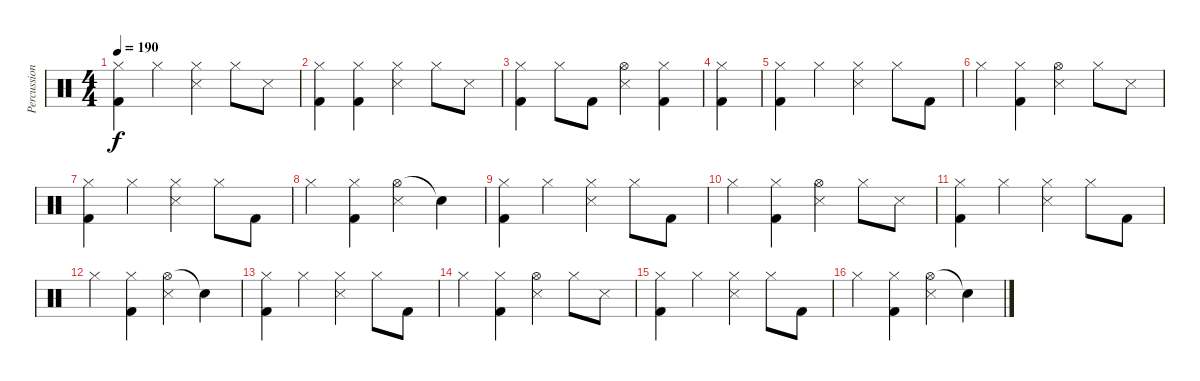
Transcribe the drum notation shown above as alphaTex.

\track ("Percussion" "Percussion") {instrument percussion}
\staff {score}
\articulation defaults
\ts (4 4)
\tempo 190
\clef neutral
\ks c
("Hi-Hat (closed)" "Kick (hit) 2").4{dy f} "Hi-Hat (closed)".4 ("Hi-Hat (closed)" "Snare (side stick) 3").4 "Hi-Hat (closed)".8 "Snare (side stick) 3".8 |
("Hi-Hat (closed)" "Kick (hit) 2").4 ("Hi-Hat (closed)" "Kick (hit) 2").4 ("Hi-Hat (closed)" "Snare (side stick) 3").4 "Hi-Hat (closed)".8 "Snare (side stick) 3".8 |
("Hi-Hat (closed)" "Kick (hit) 2").4 "Hi-Hat (closed)".8 "Kick (hit) 2".8 ("Hi-Hat (open)" "Snare (side stick) 3").4 ("Hi-Hat (closed)" "Kick (hit) 2").4 |
("Hi-Hat (closed)" "Kick (hit) 2").4 |
("Hi-Hat (closed)" "Kick (hit) 2").4 "Hi-Hat (closed)".4 ("Hi-Hat (closed)" "Snare (side stick) 3").4 "Hi-Hat (closed)".8 "Kick (hit) 2".8 |
"Hi-Hat (closed)".4 ("Hi-Hat (closed)" "Kick (hit) 2").4 ("Hi-Hat (open)" "Snare (side stick) 3").4 "Hi-Hat (closed)".8 "Snare (side stick) 3".8 |
("Hi-Hat (closed)" "Kick (hit) 2").4 "Hi-Hat (closed)".4 ("Hi-Hat (closed)" "Snare (side stick) 3").4 "Hi-Hat (closed)".8 "Kick (hit) 2".8 |
"Hi-Hat (closed)".4 ("Hi-Hat (closed)" "Kick (hit) 2").4 ("Hi-Hat (open)" "Snare (side stick) 3").4 "Snare (hit)"{t}.4 |
("Hi-Hat (closed)" "Kick (hit) 2").4 "Hi-Hat (closed)".4 ("Hi-Hat (closed)" "Snare (side stick) 3").4 "Hi-Hat (closed)".8 "Kick (hit) 2".8 |
"Hi-Hat (closed)".4 ("Hi-Hat (closed)" "Kick (hit) 2").4 ("Hi-Hat (open)" "Snare (side stick) 3").4 "Hi-Hat (closed)".8 "Snare (side stick) 3".8 |
("Hi-Hat (closed)" "Kick (hit) 2").4 "Hi-Hat (closed)".4 ("Hi-Hat (closed)" "Snare (side stick) 3").4 "Hi-Hat (closed)".8 "Kick (hit) 2".8 |
"Hi-Hat (closed)".4 ("Hi-Hat (closed)" "Kick (hit) 2").4 ("Hi-Hat (open)" "Snare (side stick) 3").4 "Snare (hit)"{t}.4 |
("Hi-Hat (closed)" "Kick (hit) 2").4 "Hi-Hat (closed)".4 ("Hi-Hat (closed)" "Snare (side stick) 3").4 "Hi-Hat (closed)".8 "Kick (hit) 2".8 |
"Hi-Hat (closed)".4 ("Hi-Hat (closed)" "Kick (hit) 2").4 ("Hi-Hat (open)" "Snare (side stick) 3").4 "Hi-Hat (closed)".8 "Snare (side stick) 3".8 |
("Hi-Hat (closed)" "Kick (hit) 2").4 "Hi-Hat (closed)".4 ("Hi-Hat (closed)" "Snare (side stick) 3").4 "Hi-Hat (closed)".8 "Kick (hit) 2".8 |
"Hi-Hat (closed)".4 ("Hi-Hat (closed)" "Kick (hit) 2").4 ("Hi-Hat (open)" "Snare (side stick) 3").4 "Snare (hit)"{t}.4
